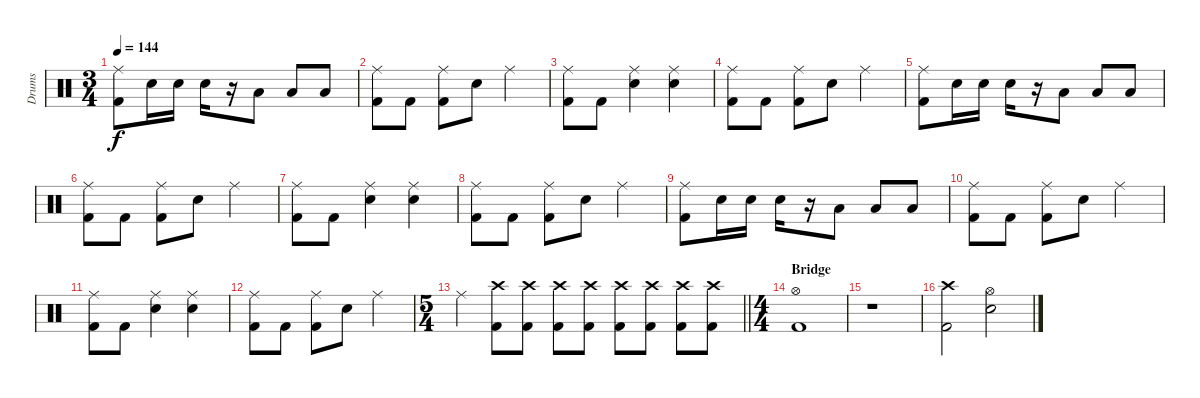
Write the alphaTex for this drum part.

\track ("Drums" "Drums") {instrument percussion}
\staff {score}
\articulation defaults
\ts (3 4)
\tempo 144
\clef neutral
\ks c
("Ride (middle)" "Kick (hit) 2").8{dy f} "Snare (hit) 2".16 "Snare (hit) 2".16 "Snare (hit) 2".16 r.16 "Low Tom (hit)".8 "Low Tom (hit)".8 "Low Tom (hit)".8 |
("Ride (middle)" "Kick (hit) 2").8 "Kick (hit) 2".8 ("Ride (middle)" "Kick (hit) 2").8 "Snare (hit) 2".8 "Ride (middle)".4 |
("Ride (middle)" "Kick (hit) 2").8 "Kick (hit) 2".8 ("Ride (middle)" "Snare (hit) 2").4 ("Ride (middle)" "Snare (hit) 2").4 |
("Ride (middle)" "Kick (hit) 2").8 "Kick (hit) 2".8 ("Ride (middle)" "Kick (hit) 2").8 "Snare (hit) 2".8 "Ride (middle)".4 |
("Ride (middle)" "Kick (hit) 2").8 "Snare (hit) 2".16 "Snare (hit) 2".16 "Snare (hit) 2".16 r.16 "Low Tom (hit)".8 "Low Tom (hit)".8 "Low Tom (hit)".8 |
("Ride (middle)" "Kick (hit) 2").8 "Kick (hit) 2".8 ("Ride (middle)" "Kick (hit) 2").8 "Snare (hit) 2".8 "Ride (middle)".4 |
("Ride (middle)" "Kick (hit) 2").8 "Kick (hit) 2".8 ("Ride (middle)" "Snare (hit) 2").4 ("Ride (middle)" "Snare (hit) 2").4 |
("Ride (middle)" "Kick (hit) 2").8 "Kick (hit) 2".8 ("Ride (middle)" "Kick (hit) 2").8 "Snare (hit) 2".8 "Ride (middle)".4 |
("Ride (middle)" "Kick (hit) 2").8 "Snare (hit) 2".16 "Snare (hit) 2".16 "Snare (hit) 2".16 r.16 "Low Tom (hit)".8 "Low Tom (hit)".8 "Low Tom (hit)".8 |
("Ride (middle)" "Kick (hit) 2").8 "Kick (hit) 2".8 ("Ride (middle)" "Kick (hit) 2").8 "Snare (hit) 2".8 "Ride (middle)".4 |
("Ride (middle)" "Kick (hit) 2").8 "Kick (hit) 2".8 ("Ride (middle)" "Snare (hit) 2").4 ("Ride (middle)" "Snare (hit) 2").4 |
("Ride (middle)" "Kick (hit) 2").8 "Kick (hit) 2".8 ("Ride (middle)" "Kick (hit) 2").8 "Snare (hit) 2".8 "Ride (middle)".4 |
\ts (5 4)
\barLineRight lightlight "Ride (middle)".4
("Crash high (hit)" "Kick (hit) 2").8 ("Crash high (hit)" "Kick (hit) 2").8 ("Crash high (hit)" "Kick (hit) 2").8 ("Crash high (hit)" "Kick (hit) 2").8 ("Crash high (hit)" "Kick (hit) 2").8 ("Crash high (hit)" "Kick (hit) 2").8 ("Crash high (hit)" "Kick (hit) 2").8 ("Crash high (hit)" "Kick (hit) 2").8 |
\ts (4 4)
\section ("" "Bridge")
("Hi-Hat (open)" "Kick (hit) 2").1 |
r.1 |
("Crash high (hit)" "Kick (hit) 2").2 ("Hi-Hat (open)" "Snare (hit) 2").2
